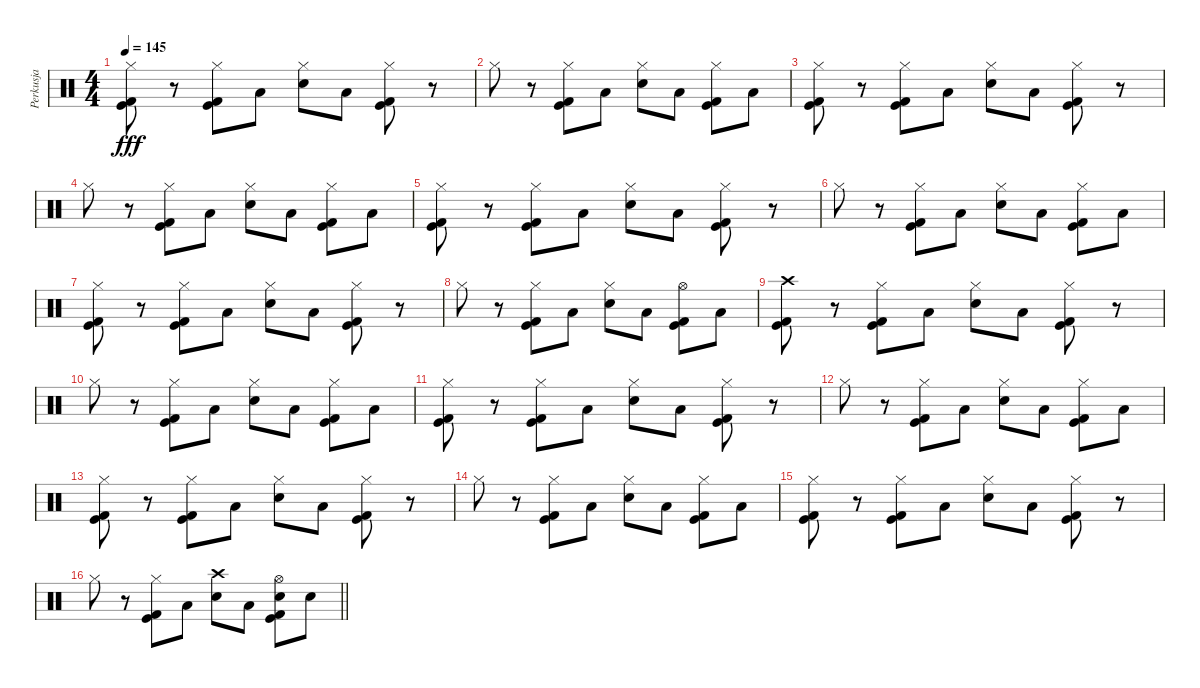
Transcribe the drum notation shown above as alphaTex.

\track ("Perkusja" "Perkusja") {instrument percussion}
\staff {score}
\articulation defaults
\ts (4 4)
\tempo 145
\clef neutral
\ks c
("Hi-Hat (closed)" "Kick (hit)" "Kick (hit) 2").8{dy fff} r.8 ("Hi-Hat (closed)" "Kick (hit)" "Kick (hit) 2").8 "Low Floor Tom (hit)".8 ("Hi-Hat (closed)" "Electric Snare (hit)").8 "Low Floor Tom (hit)".8 ("Hi-Hat (closed)" "Kick (hit)" "Kick (hit) 2").8 r.8 |
"Hi-Hat (closed)".8 r.8 ("Hi-Hat (closed)" "Kick (hit)" "Kick (hit) 2").8 "Low Floor Tom (hit)".8 ("Hi-Hat (closed)" "Electric Snare (hit)").8 "Low Floor Tom (hit)".8 ("Hi-Hat (closed)" "Kick (hit)" "Kick (hit) 2").8 "Low Floor Tom (hit)".8 |
("Hi-Hat (closed)" "Kick (hit)" "Kick (hit) 2").8 r.8 ("Hi-Hat (closed)" "Kick (hit)" "Kick (hit) 2").8 "Low Floor Tom (hit)".8 ("Hi-Hat (closed)" "Electric Snare (hit)").8 "Low Floor Tom (hit)".8 ("Hi-Hat (closed)" "Kick (hit)" "Kick (hit) 2").8 r.8 |
"Hi-Hat (closed)".8 r.8 ("Hi-Hat (closed)" "Kick (hit)" "Kick (hit) 2").8 "Low Floor Tom (hit)".8 ("Hi-Hat (closed)" "Electric Snare (hit)").8 "Low Floor Tom (hit)".8 ("Hi-Hat (closed)" "Kick (hit)" "Kick (hit) 2").8 "Low Floor Tom (hit)".8 |
("Hi-Hat (closed)" "Kick (hit)" "Kick (hit) 2").8 r.8 ("Hi-Hat (closed)" "Kick (hit)" "Kick (hit) 2").8 "Low Floor Tom (hit)".8 ("Hi-Hat (closed)" "Electric Snare (hit)").8 "Low Floor Tom (hit)".8 ("Hi-Hat (closed)" "Kick (hit)" "Kick (hit) 2").8 r.8 |
"Hi-Hat (closed)".8 r.8 ("Hi-Hat (closed)" "Kick (hit)" "Kick (hit) 2").8 "Low Floor Tom (hit)".8 ("Hi-Hat (closed)" "Electric Snare (hit)").8 "Low Floor Tom (hit)".8 ("Hi-Hat (closed)" "Kick (hit)" "Kick (hit) 2").8 "Low Floor Tom (hit)".8 |
("Hi-Hat (closed)" "Kick (hit)" "Kick (hit) 2").8 r.8 ("Hi-Hat (closed)" "Kick (hit)" "Kick (hit) 2").8 "Low Floor Tom (hit)".8 ("Hi-Hat (closed)" "Electric Snare (hit)").8 "Low Floor Tom (hit)".8 ("Hi-Hat (closed)" "Kick (hit)" "Kick (hit) 2").8 r.8 |
"Hi-Hat (closed)".8 r.8 ("Hi-Hat (closed)" "Kick (hit)" "Kick (hit) 2").8 "Low Floor Tom (hit)".8 ("Hi-Hat (closed)" "Electric Snare (hit)").8 "Low Floor Tom (hit)".8 ("Hi-Hat (open)" "Kick (hit)" "Kick (hit) 2").8 "Low Floor Tom (hit)".8 |
("Crash high (hit)" "Kick (hit)" "Kick (hit) 2").8 r.8 ("Hi-Hat (closed)" "Kick (hit)" "Kick (hit) 2").8 "Low Floor Tom (hit)".8 ("Hi-Hat (closed)" "Electric Snare (hit)").8 "Low Floor Tom (hit)".8 ("Hi-Hat (closed)" "Kick (hit)" "Kick (hit) 2").8 r.8 |
"Hi-Hat (closed)".8 r.8 ("Hi-Hat (closed)" "Kick (hit)" "Kick (hit) 2").8 "Low Floor Tom (hit)".8 ("Hi-Hat (closed)" "Electric Snare (hit)").8 "Low Floor Tom (hit)".8 ("Hi-Hat (closed)" "Kick (hit)" "Kick (hit) 2").8 "Low Floor Tom (hit)".8 |
("Hi-Hat (closed)" "Kick (hit)" "Kick (hit) 2").8 r.8 ("Hi-Hat (closed)" "Kick (hit)" "Kick (hit) 2").8 "Low Floor Tom (hit)".8 ("Hi-Hat (closed)" "Electric Snare (hit)").8 "Low Floor Tom (hit)".8 ("Hi-Hat (closed)" "Kick (hit)" "Kick (hit) 2").8 r.8 |
"Hi-Hat (closed)".8 r.8 ("Hi-Hat (closed)" "Kick (hit)" "Kick (hit) 2").8 "Low Floor Tom (hit)".8 ("Hi-Hat (closed)" "Electric Snare (hit)").8 "Low Floor Tom (hit)".8 ("Hi-Hat (closed)" "Kick (hit)" "Kick (hit) 2").8 "Low Floor Tom (hit)".8 |
("Hi-Hat (closed)" "Kick (hit)" "Kick (hit) 2").8 r.8 ("Hi-Hat (closed)" "Kick (hit)" "Kick (hit) 2").8 "Low Floor Tom (hit)".8 ("Hi-Hat (closed)" "Electric Snare (hit)").8 "Low Floor Tom (hit)".8 ("Hi-Hat (closed)" "Kick (hit)" "Kick (hit) 2").8 r.8 |
"Hi-Hat (closed)".8 r.8 ("Hi-Hat (closed)" "Kick (hit)" "Kick (hit) 2").8 "Low Floor Tom (hit)".8 ("Hi-Hat (closed)" "Electric Snare (hit)").8 "Low Floor Tom (hit)".8 ("Hi-Hat (closed)" "Kick (hit)" "Kick (hit) 2").8 "Low Floor Tom (hit)".8 |
("Hi-Hat (closed)" "Kick (hit)" "Kick (hit) 2").8 r.8 ("Hi-Hat (closed)" "Kick (hit)" "Kick (hit) 2").8 "Low Floor Tom (hit)".8 ("Hi-Hat (closed)" "Electric Snare (hit)").8 "Low Floor Tom (hit)".8 ("Hi-Hat (closed)" "Kick (hit)" "Kick (hit) 2").8 r.8 |
\barLineRight lightlight "Hi-Hat (closed)".8
r.8 ("Hi-Hat (closed)" "Kick (hit)" "Kick (hit) 2").8 "Low Floor Tom (hit)".8 ("Crash high (hit)" "Electric Snare (hit)").8 "Low Floor Tom (hit)".8 ("Hi-Hat (open)" "Electric Snare (hit)" "Kick (hit)" "Kick (hit) 2").8 "Electric Snare (hit)".8
